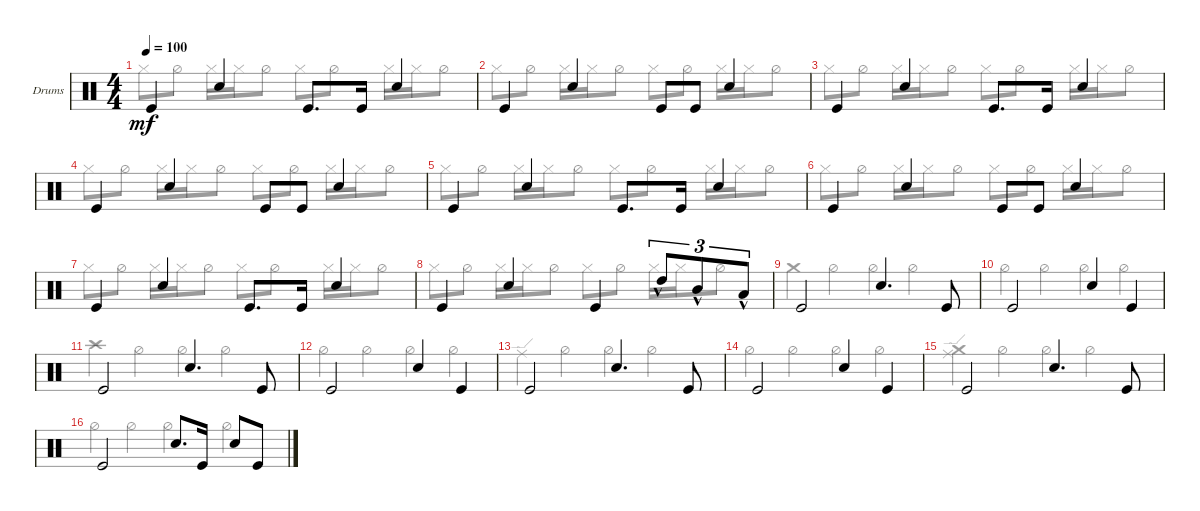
\bracketExtendMode groupsimilarinstruments
\firstSystemTrackNameOrientation horizontal
\otherSystemsTrackNameOrientation horizontal
\track ("Drumkit" "Drums") {multiBarRest instrument percussion}
\staff {score}
\articulation defaults
\voice
\ts (4 4)
\tempo 100
\clef neutral
\scale
0.25
\ks c "Kick (hit)".4{dy mf} "Snare (hit) 2".4 "Kick (hit)".8{d} "Kick (hit)".16 "Snare (hit) 2".4
|
\scale
0.25 "Kick (hit)".4 "Snare (hit) 2".4 "Kick (hit)".8 "Kick (hit)".8 "Snare (hit) 2".4 |
\scale
0.25 "Kick (hit)".4 "Snare (hit) 2".4 "Kick (hit)".8{d} "Kick (hit)".16 "Snare (hit) 2".4 |
\scale
0.25 "Kick (hit)".4 "Snare (hit) 2".4 "Kick (hit)".8 "Kick (hit)".8 "Snare (hit) 2".4 |
\scale
0.196429 "Kick (hit)".4 "Snare (hit) 2".4 "Kick (hit)".8{d} "Kick (hit)".16 "Snare (hit) 2".4 |
\scale
0.196429 "Kick (hit)".4 "Snare (hit) 2".4 "Kick (hit)".8 "Kick (hit)".8 "Snare (hit) 2".4 |
\scale
0.196429 "Kick (hit)".4 "Snare (hit) 2".4 "Kick (hit)".8{d} "Kick (hit)".16 "Snare (hit) 2".4 |
\scale
0.410714 "Kick (hit)".4 "Snare (hit) 2".4 "Kick (hit)".4 "High Tom (hit)"{hac}.8{tu (3 2)} "Mid Tom (hit)"{hac}.8{tu (3 2)} "Low Tom (hit)"{hac}.8{tu (3 2)} |
\scale
0.287671 "Kick (hit)".2 "Snare (hit) 2".4{d} "Kick (hit)".8 |
\scale
0.212329 "Kick (hit)".2 "Snare (hit) 2".4 "Kick (hit)".4 |
\scale
0.287671 "Kick (hit)".2 "Snare (hit) 2".4{d} "Kick (hit)".8 |
\scale
0.212329 "Kick (hit)".2 "Snare (hit) 2".4 "Kick (hit)".4 |
\scale
0.232044 "Kick (hit)".2 "Snare (hit) 2".4{d} "Kick (hit)".8 |
\scale
0.171271 "Kick (hit)".2 "Snare (hit) 2".4 "Kick (hit)".4 |
\scale
0.232044 "Kick (hit)".2 "Snare (hit) 2".4{d} "Kick (hit)".8 |
\scale
0.364641 "Kick (hit)".2 "Snare (hit) 2".8{d} "Kick (hit)".16 "Snare (hit) 2".8 "Kick (hit)".8
\voice
\clef neutral
\ottava regular
\simile none
\scale
0.25
\ks c "Hi-Hat (closed)".8{dy mf} "Hi-Hat (half)".8 "Hi-Hat (closed)".16 "Hi-Hat (closed)".16 "Hi-Hat (half)".8 "Hi-Hat (closed)".8 "Hi-Hat (half)".8 "Hi-Hat (closed)".16 "Hi-Hat (closed)".16 "Hi-Hat (half)".8
|
\scale
0.25 "Hi-Hat (closed)".8 "Hi-Hat (half)".8 "Hi-Hat (closed)".16 "Hi-Hat (closed)".16 "Hi-Hat (half)".8 "Hi-Hat (closed)".8 "Hi-Hat (half)".8 "Hi-Hat (closed)".16 "Hi-Hat (closed)".16 "Hi-Hat (half)".8 |
\scale
0.25 "Hi-Hat (closed)".8 "Hi-Hat (half)".8 "Hi-Hat (closed)".16 "Hi-Hat (closed)".16 "Hi-Hat (half)".8 "Hi-Hat (closed)".8 "Hi-Hat (half)".8 "Hi-Hat (closed)".16 "Hi-Hat (closed)".16 "Hi-Hat (half)".8 |
\scale
0.25 "Hi-Hat (closed)".8 "Hi-Hat (half)".8 "Hi-Hat (closed)".16 "Hi-Hat (closed)".16 "Hi-Hat (half)".8 "Hi-Hat (closed)".8 "Hi-Hat (half)".8 "Hi-Hat (closed)".16 "Hi-Hat (closed)".16 "Hi-Hat (half)".8 |
\scale
0.196429 "Hi-Hat (closed)".8 "Hi-Hat (half)".8 "Hi-Hat (closed)".16 "Hi-Hat (closed)".16 "Hi-Hat (half)".8 "Hi-Hat (closed)".8 "Hi-Hat (half)".8 "Hi-Hat (closed)".16 "Hi-Hat (closed)".16 "Hi-Hat (half)".8 |
\scale
0.196429 "Hi-Hat (closed)".8 "Hi-Hat (half)".8 "Hi-Hat (closed)".16 "Hi-Hat (closed)".16 "Hi-Hat (half)".8 "Hi-Hat (closed)".8 "Hi-Hat (half)".8 "Hi-Hat (closed)".16 "Hi-Hat (closed)".16 "Hi-Hat (half)".8 |
\scale
0.196429 "Hi-Hat (closed)".8 "Hi-Hat (half)".8 "Hi-Hat (closed)".16 "Hi-Hat (closed)".16 "Hi-Hat (half)".8 "Hi-Hat (closed)".8 "Hi-Hat (half)".8 "Hi-Hat (closed)".16 "Hi-Hat (closed)".16 "Hi-Hat (half)".8 |
\scale
0.410714 "Hi-Hat (closed)".8 "Hi-Hat (half)".8 "Hi-Hat (closed)".16 "Hi-Hat (closed)".16 "Hi-Hat (half)".8 "Hi-Hat (closed)".8 "Hi-Hat (half)".8 "Hi-Hat (closed)".16 "Hi-Hat (closed)".16 "Hi-Hat (half)".8 |
\scale
0.287671 "Crash medium (hit)".4 "Hi-Hat (half)".4 "Hi-Hat (half)".4 "Hi-Hat (half)".4 |
\scale
0.212329 "Hi-Hat (half)".4 "Hi-Hat (half)".4 "Hi-Hat (half)".4 "Hi-Hat (half)".4 |
\scale
0.287671 "Crash high (hit)".4 "Hi-Hat (half)".4 "Hi-Hat (half)".4 "Hi-Hat (half)".4 |
\scale
0.212329 "Hi-Hat (half)".4 "Hi-Hat (half)".4 "Hi-Hat (half)".4 "Hi-Hat (half)".4 |
\scale
0.232044 "Ride (edge)".4 "Hi-Hat (half)".4 "Hi-Hat (half)".4 "Hi-Hat (half)".4 |
\scale
0.171271 "Hi-Hat (half)".4 "Hi-Hat (half)".4 "Hi-Hat (half)".4 "Hi-Hat (half)".4 |
\scale
0.232044 ("Crash medium (hit)" "Ride (edge)").4 "Hi-Hat (half)".4 "Hi-Hat (half)".4 "Hi-Hat (half)".4 |
\scale
0.364641 "Hi-Hat (half)".4 "Hi-Hat (half)".4 "Hi-Hat (half)".4 "Hi-Hat (half)".4
